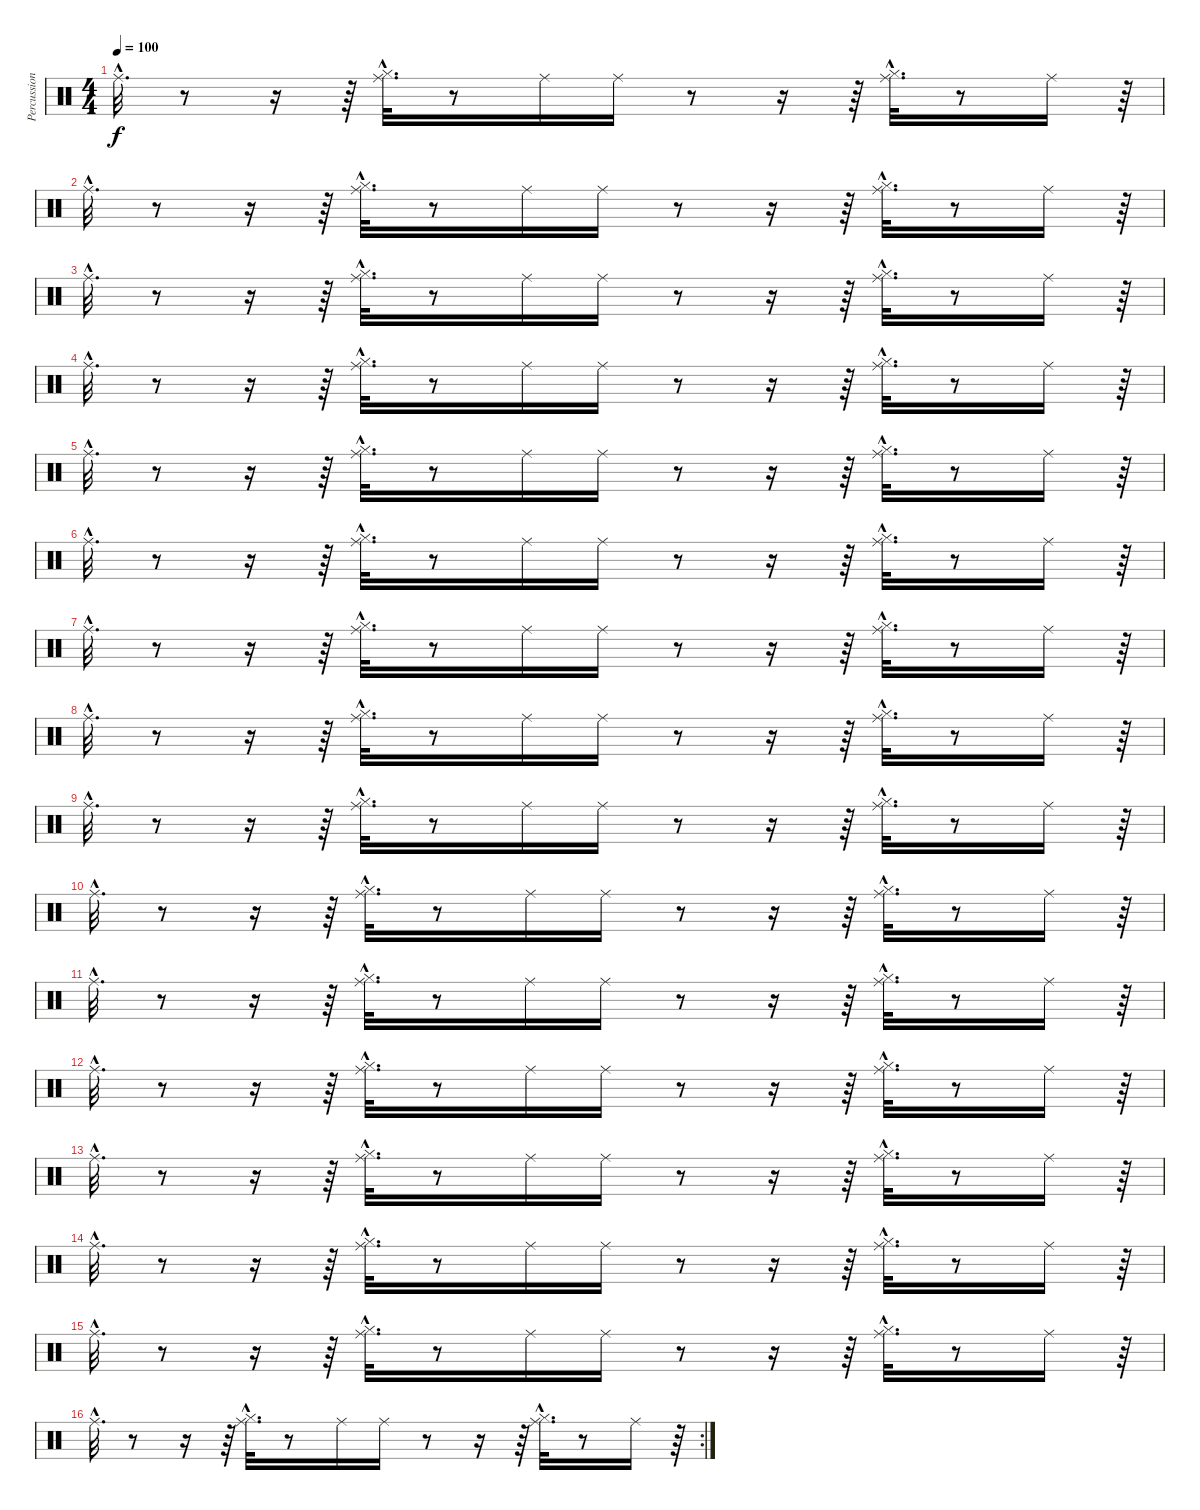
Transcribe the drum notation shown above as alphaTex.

\track ("Percussions" "Percussion") {instrument percussion}
\staff {score}
\articulation defaults
\ts (4 4)
\tempo 100
\clef neutral
\ks c "Ride (middle)"{hac}.32{d dy f}
r.8 r.16 r.64 ("Hi-Hat (closed)"{hac} "Ride (middle)"{hac}).32{d} r.8 "Ride (middle)".16 "Ride (middle)".16 r.8 r.16 r.64 ("Hi-Hat (closed)"{hac} "Ride (middle)"{hac}).32{d} r.8 "Ride (middle)".16 r.64 |
"Ride (middle)"{hac}.32{d} r.8 r.16 r.64 ("Hi-Hat (closed)"{hac} "Ride (middle)"{hac}).32{d} r.8 "Ride (middle)".16 "Ride (middle)".16 r.8 r.16 r.64 ("Hi-Hat (closed)"{hac} "Ride (middle)"{hac}).32{d} r.8 "Ride (middle)".16 r.64 |
"Ride (middle)"{hac}.32{d} r.8 r.16 r.64 ("Hi-Hat (closed)"{hac} "Ride (middle)"{hac}).32{d} r.8 "Ride (middle)".16 "Ride (middle)".16 r.8 r.16 r.64 ("Hi-Hat (closed)"{hac} "Ride (middle)"{hac}).32{d} r.8 "Ride (middle)".16 r.64 |
"Ride (middle)"{hac}.32{d} r.8 r.16 r.64 ("Hi-Hat (closed)"{hac} "Ride (middle)"{hac}).32{d} r.8 "Ride (middle)".16 "Ride (middle)".16 r.8 r.16 r.64 ("Hi-Hat (closed)"{hac} "Ride (middle)"{hac}).32{d} r.8 "Ride (middle)".16 r.64 |
"Ride (middle)"{hac}.32{d} r.8 r.16 r.64 ("Hi-Hat (closed)"{hac} "Ride (middle)"{hac}).32{d} r.8 "Ride (middle)".16 "Ride (middle)".16 r.8 r.16 r.64 ("Hi-Hat (closed)"{hac} "Ride (middle)"{hac}).32{d} r.8 "Ride (middle)".16 r.64 |
"Ride (middle)"{hac}.32{d} r.8 r.16 r.64 ("Hi-Hat (closed)"{hac} "Ride (middle)"{hac}).32{d} r.8 "Ride (middle)".16 "Ride (middle)".16 r.8 r.16 r.64 ("Hi-Hat (closed)"{hac} "Ride (middle)"{hac}).32{d} r.8 "Ride (middle)".16 r.64 |
"Ride (middle)"{hac}.32{d} r.8 r.16 r.64 ("Hi-Hat (closed)"{hac} "Ride (middle)"{hac}).32{d} r.8 "Ride (middle)".16 "Ride (middle)".16 r.8 r.16 r.64 ("Hi-Hat (closed)"{hac} "Ride (middle)"{hac}).32{d} r.8 "Ride (middle)".16 r.64 |
"Ride (middle)"{hac}.32{d} r.8 r.16 r.64 ("Hi-Hat (closed)"{hac} "Ride (middle)"{hac}).32{d} r.8 "Ride (middle)".16 "Ride (middle)".16 r.8 r.16 r.64 ("Hi-Hat (closed)"{hac} "Ride (middle)"{hac}).32{d} r.8 "Ride (middle)".16 r.64 |
"Ride (middle)"{hac}.32{d} r.8 r.16 r.64 ("Hi-Hat (closed)"{hac} "Ride (middle)"{hac}).32{d} r.8 "Ride (middle)".16 "Ride (middle)".16 r.8 r.16 r.64 ("Hi-Hat (closed)"{hac} "Ride (middle)"{hac}).32{d} r.8 "Ride (middle)".16 r.64 |
"Ride (middle)"{hac}.32{d} r.8 r.16 r.64 ("Hi-Hat (closed)"{hac} "Ride (middle)"{hac}).32{d} r.8 "Ride (middle)".16 "Ride (middle)".16 r.8 r.16 r.64 ("Hi-Hat (closed)"{hac} "Ride (middle)"{hac}).32{d} r.8 "Ride (middle)".16 r.64 |
"Ride (middle)"{hac}.32{d} r.8 r.16 r.64 ("Hi-Hat (closed)"{hac} "Ride (middle)"{hac}).32{d} r.8 "Ride (middle)".16 "Ride (middle)".16 r.8 r.16 r.64 ("Hi-Hat (closed)"{hac} "Ride (middle)"{hac}).32{d} r.8 "Ride (middle)".16 r.64 |
"Ride (middle)"{hac}.32{d} r.8 r.16 r.64 ("Hi-Hat (closed)"{hac} "Ride (middle)"{hac}).32{d} r.8 "Ride (middle)".16 "Ride (middle)".16 r.8 r.16 r.64 ("Hi-Hat (closed)"{hac} "Ride (middle)"{hac}).32{d} r.8 "Ride (middle)".16 r.64 |
"Ride (middle)"{hac}.32{d} r.8 r.16 r.64 ("Hi-Hat (closed)"{hac} "Ride (middle)"{hac}).32{d} r.8 "Ride (middle)".16 "Ride (middle)".16 r.8 r.16 r.64 ("Hi-Hat (closed)"{hac} "Ride (middle)"{hac}).32{d} r.8 "Ride (middle)".16 r.64 |
"Ride (middle)"{hac}.32{d} r.8 r.16 r.64 ("Hi-Hat (closed)"{hac} "Ride (middle)"{hac}).32{d} r.8 "Ride (middle)".16 "Ride (middle)".16 r.8 r.16 r.64 ("Hi-Hat (closed)"{hac} "Ride (middle)"{hac}).32{d} r.8 "Ride (middle)".16 r.64 |
"Ride (middle)"{hac}.32{d} r.8 r.16 r.64 ("Hi-Hat (closed)"{hac} "Ride (middle)"{hac}).32{d} r.8 "Ride (middle)".16 "Ride (middle)".16 r.8 r.16 r.64 ("Hi-Hat (closed)"{hac} "Ride (middle)"{hac}).32{d} r.8 "Ride (middle)".16 r.64 |
\rc 2 "Ride (middle)"{hac}.32{d}
r.8 r.16 r.64 ("Hi-Hat (closed)"{hac} "Ride (middle)"{hac}).32{d} r.8 "Ride (middle)".16 "Ride (middle)".16 r.8 r.16 r.64 ("Hi-Hat (closed)"{hac} "Ride (middle)"{hac}).32{d} r.8 "Ride (middle)".16 r.64
